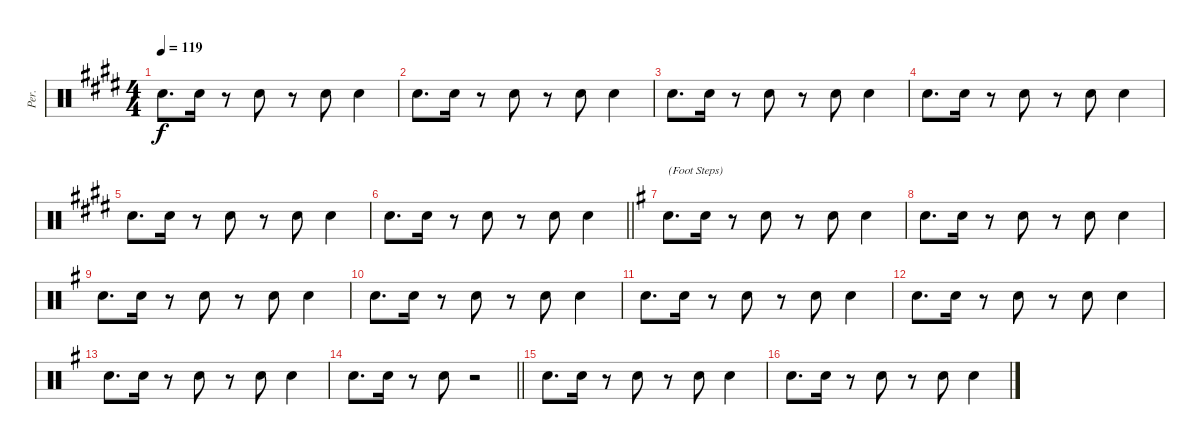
\track ("Per." "Per.") {instrument percussion}
\staff {score}
\articulation defaults
\ts (4 4)
\tempo 119
\clef neutral
\ks c#minor "Hand Clap (hit)".8{d dy f} "Hand Clap (hit)".16
r.8 "Hand Clap (hit)".8 r.8 "Hand Clap (hit)".8 "Hand Clap (hit)".4 |
"Hand Clap (hit)".8{d} "Hand Clap (hit)".16 r.8 "Hand Clap (hit)".8 r.8 "Hand Clap (hit)".8 "Hand Clap (hit)".4 |
"Hand Clap (hit)".8{d} "Hand Clap (hit)".16 r.8 "Hand Clap (hit)".8 r.8 "Hand Clap (hit)".8 "Hand Clap (hit)".4 |
"Hand Clap (hit)".8{d} "Hand Clap (hit)".16 r.8 "Hand Clap (hit)".8 r.8 "Hand Clap (hit)".8 "Hand Clap (hit)".4 |
"Hand Clap (hit)".8{d} "Hand Clap (hit)".16 r.8 "Hand Clap (hit)".8 r.8 "Hand Clap (hit)".8 "Hand Clap (hit)".4 |
\barLineRight lightlight "Hand Clap (hit)".8{d} "Hand Clap (hit)".16
r.8 "Hand Clap (hit)".8 r.8 "Hand Clap (hit)".8 "Hand Clap (hit)".4 |
\ks eminor "Hand Clap (hit)".8{d txt "(Foot Steps)"} "Hand Clap (hit)".16
r.8 "Hand Clap (hit)".8 r.8 "Hand Clap (hit)".8 "Hand Clap (hit)".4 |
"Hand Clap (hit)".8{d} "Hand Clap (hit)".16 r.8 "Hand Clap (hit)".8 r.8 "Hand Clap (hit)".8 "Hand Clap (hit)".4 |
"Hand Clap (hit)".8{d} "Hand Clap (hit)".16 r.8 "Hand Clap (hit)".8 r.8 "Hand Clap (hit)".8 "Hand Clap (hit)".4 |
"Hand Clap (hit)".8{d} "Hand Clap (hit)".16 r.8 "Hand Clap (hit)".8 r.8 "Hand Clap (hit)".8 "Hand Clap (hit)".4 |
"Hand Clap (hit)".8{d} "Hand Clap (hit)".16 r.8 "Hand Clap (hit)".8 r.8 "Hand Clap (hit)".8 "Hand Clap (hit)".4 |
"Hand Clap (hit)".8{d} "Hand Clap (hit)".16 r.8 "Hand Clap (hit)".8 r.8 "Hand Clap (hit)".8 "Hand Clap (hit)".4 |
"Hand Clap (hit)".8{d} "Hand Clap (hit)".16 r.8 "Hand Clap (hit)".8 r.8 "Hand Clap (hit)".8 "Hand Clap (hit)".4 |
\barLineRight lightlight "Hand Clap (hit)".8{d} "Hand Clap (hit)".16
r.8 "Hand Clap (hit)".8 r.2 |
"Hand Clap (hit)".8{d} "Hand Clap (hit)".16 r.8 "Hand Clap (hit)".8 r.8 "Hand Clap (hit)".8 "Hand Clap (hit)".4 |
"Hand Clap (hit)".8{d} "Hand Clap (hit)".16 r.8 "Hand Clap (hit)".8 r.8 "Hand Clap (hit)".8 "Hand Clap (hit)".4
